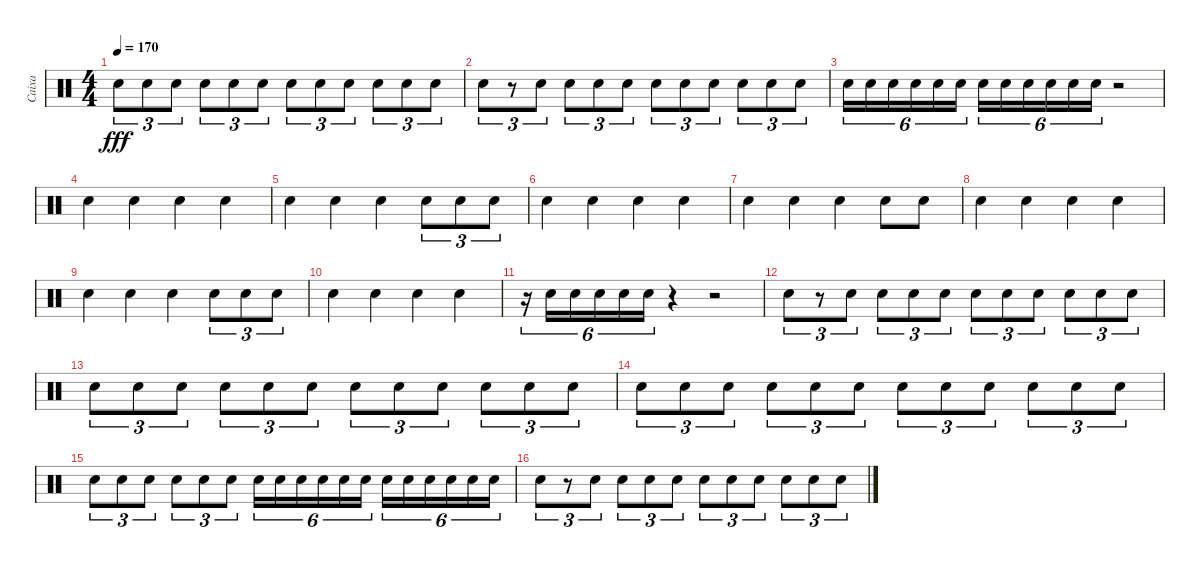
\track ("Caixa" "Caixa") {instrument percussion}
\staff {score}
\articulation defaults
\ts (4 4)
\tempo 170
\clef neutral
\ks c "Electric Snare (hit)".8{tu (3 2) dy fff} "Electric Snare (hit)".8{tu (3 2)} "Electric Snare (hit)".8{tu (3 2)} "Electric Snare (hit)".8{tu (3 2)} "Electric Snare (hit)".8{tu (3 2)} "Electric Snare (hit)".8{tu (3 2)} "Electric Snare (hit)".8{tu (3 2)} "Electric Snare (hit)".8{tu (3 2)} "Electric Snare (hit)".8{tu (3 2)} "Electric Snare (hit)".8{tu (3 2)} "Electric Snare (hit)".8{tu (3 2)} "Electric Snare (hit)".8{tu (3 2)}
|
"Electric Snare (hit)".8{tu (3 2)} r.8{tu (3 2)} "Electric Snare (hit)".8{tu (3 2)} "Electric Snare (hit)".8{tu (3 2)} "Electric Snare (hit)".8{tu (3 2)} "Electric Snare (hit)".8{tu (3 2)} "Electric Snare (hit)".8{tu (3 2)} "Electric Snare (hit)".8{tu (3 2)} "Electric Snare (hit)".8{tu (3 2)} "Electric Snare (hit)".8{tu (3 2)} "Electric Snare (hit)".8{tu (3 2)} "Electric Snare (hit)".8{tu (3 2)} |
"Electric Snare (hit)".16{tu (6 4)} "Electric Snare (hit)".16{tu (6 4)} "Electric Snare (hit)".16{tu (6 4)} "Electric Snare (hit)".16{tu (6 4)} "Electric Snare (hit)".16{tu (6 4)} "Electric Snare (hit)".16{tu (6 4)} "Electric Snare (hit)".16{tu (6 4)} "Electric Snare (hit)".16{tu (6 4)} "Electric Snare (hit)".16{tu (6 4)} "Electric Snare (hit)".16{tu (6 4)} "Electric Snare (hit)".16{tu (6 4)} "Electric Snare (hit)".16{tu (6 4)} r.2 |
"Electric Snare (hit)".4 "Electric Snare (hit)".4 "Electric Snare (hit)".4 "Electric Snare (hit)".4 |
"Electric Snare (hit)".4 "Electric Snare (hit)".4 "Electric Snare (hit)".4 "Electric Snare (hit)".8{tu (3 2)} "Electric Snare (hit)".8{tu (3 2)} "Electric Snare (hit)".8{tu (3 2)} |
"Electric Snare (hit)".4 "Electric Snare (hit)".4 "Electric Snare (hit)".4 "Electric Snare (hit)".4 |
"Electric Snare (hit)".4 "Electric Snare (hit)".4 "Electric Snare (hit)".4 "Electric Snare (hit)".8 "Electric Snare (hit)".8 |
"Electric Snare (hit)".4 "Electric Snare (hit)".4 "Electric Snare (hit)".4 "Electric Snare (hit)".4 |
"Electric Snare (hit)".4 "Electric Snare (hit)".4 "Electric Snare (hit)".4 "Electric Snare (hit)".8{tu (3 2)} "Electric Snare (hit)".8{tu (3 2)} "Electric Snare (hit)".8{tu (3 2)} |
"Electric Snare (hit)".4 "Electric Snare (hit)".4 "Electric Snare (hit)".4 "Electric Snare (hit)".4 |
r.16{tu (6 4)} "Electric Snare (hit)".16{tu (6 4)} "Electric Snare (hit)".16{tu (6 4)} "Electric Snare (hit)".16{tu (6 4)} "Electric Snare (hit)".16{tu (6 4)} "Electric Snare (hit)".16{tu (6 4)} r.4 r.2 |
"Electric Snare (hit)".8{tu (3 2)} r.8{tu (3 2)} "Electric Snare (hit)".8{tu (3 2)} "Electric Snare (hit)".8{tu (3 2)} "Electric Snare (hit)".8{tu (3 2)} "Electric Snare (hit)".8{tu (3 2)} "Electric Snare (hit)".8{tu (3 2)} "Electric Snare (hit)".8{tu (3 2)} "Electric Snare (hit)".8{tu (3 2)} "Electric Snare (hit)".8{tu (3 2)} "Electric Snare (hit)".8{tu (3 2)} "Electric Snare (hit)".8{tu (3 2)} |
"Electric Snare (hit)".8{tu (3 2)} "Electric Snare (hit)".8{tu (3 2)} "Electric Snare (hit)".8{tu (3 2)} "Electric Snare (hit)".8{tu (3 2)} "Electric Snare (hit)".8{tu (3 2)} "Electric Snare (hit)".8{tu (3 2)} "Electric Snare (hit)".8{tu (3 2)} "Electric Snare (hit)".8{tu (3 2)} "Electric Snare (hit)".8{tu (3 2)} "Electric Snare (hit)".8{tu (3 2)} "Electric Snare (hit)".8{tu (3 2)} "Electric Snare (hit)".8{tu (3 2)} |
"Electric Snare (hit)".8{tu (3 2)} "Electric Snare (hit)".8{tu (3 2)} "Electric Snare (hit)".8{tu (3 2)} "Electric Snare (hit)".8{tu (3 2)} "Electric Snare (hit)".8{tu (3 2)} "Electric Snare (hit)".8{tu (3 2)} "Electric Snare (hit)".8{tu (3 2)} "Electric Snare (hit)".8{tu (3 2)} "Electric Snare (hit)".8{tu (3 2)} "Electric Snare (hit)".8{tu (3 2)} "Electric Snare (hit)".8{tu (3 2)} "Electric Snare (hit)".8{tu (3 2)} |
"Electric Snare (hit)".8{tu (3 2)} "Electric Snare (hit)".8{tu (3 2)} "Electric Snare (hit)".8{tu (3 2)} "Electric Snare (hit)".8{tu (3 2)} "Electric Snare (hit)".8{tu (3 2)} "Electric Snare (hit)".8{tu (3 2)} "Electric Snare (hit)".16{tu (6 4)} "Electric Snare (hit)".16{tu (6 4)} "Electric Snare (hit)".16{tu (6 4)} "Electric Snare (hit)".16{tu (6 4)} "Electric Snare (hit)".16{tu (6 4)} "Electric Snare (hit)".16{tu (6 4)} "Electric Snare (hit)".16{tu (6 4)} "Electric Snare (hit)".16{tu (6 4)} "Electric Snare (hit)".16{tu (6 4)} "Electric Snare (hit)".16{tu (6 4)} "Electric Snare (hit)".16{tu (6 4)} "Electric Snare (hit)".16{tu (6 4)} |
"Electric Snare (hit)".8{tu (3 2)} r.8{tu (3 2)} "Electric Snare (hit)".8{tu (3 2)} "Electric Snare (hit)".8{tu (3 2)} "Electric Snare (hit)".8{tu (3 2)} "Electric Snare (hit)".8{tu (3 2)} "Electric Snare (hit)".8{tu (3 2)} "Electric Snare (hit)".8{tu (3 2)} "Electric Snare (hit)".8{tu (3 2)} "Electric Snare (hit)".8{tu (3 2)} "Electric Snare (hit)".8{tu (3 2)} "Electric Snare (hit)".8{tu (3 2)}
